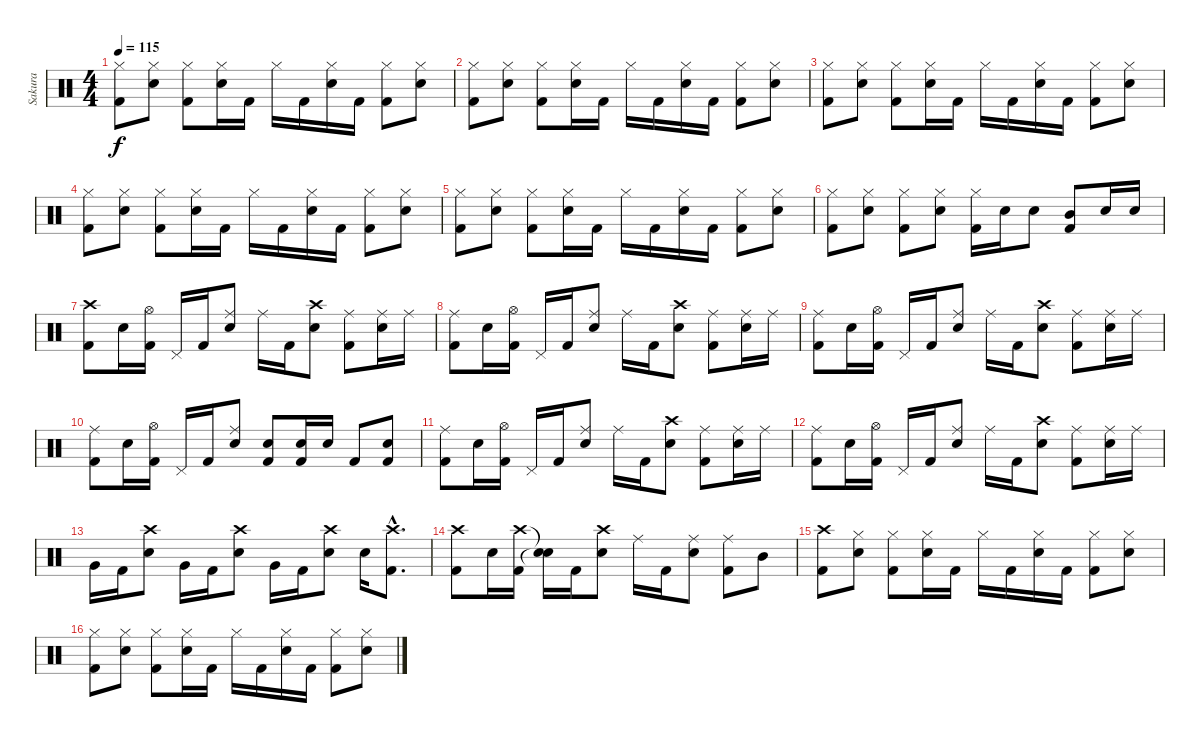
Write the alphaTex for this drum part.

\track ("Sakura" "Sakura") {instrument percussion}
\staff {score}
\articulation defaults
\ts (4 4)
\tempo 115
\clef neutral
\ks c
("Hi-Hat (closed)" "Kick (hit) 2").8{dy f} ("Hi-Hat (closed)" "Electric Snare (hit)").8 ("Hi-Hat (closed)" "Kick (hit) 2").8 ("Hi-Hat (closed)" "Electric Snare (hit)").16 "Kick (hit) 2".16 "Hi-Hat (closed)".16 "Kick (hit) 2".16 ("Hi-Hat (closed)" "Electric Snare (hit)").16 "Kick (hit) 2".16 ("Hi-Hat (closed)" "Kick (hit) 2").8 ("Hi-Hat (closed)" "Electric Snare (hit)").8 |
("Hi-Hat (closed)" "Kick (hit) 2").8 ("Hi-Hat (closed)" "Electric Snare (hit)").8 ("Hi-Hat (closed)" "Kick (hit) 2").8 ("Hi-Hat (closed)" "Electric Snare (hit)").16 "Kick (hit) 2".16 "Hi-Hat (closed)".16 "Kick (hit) 2".16 ("Hi-Hat (closed)" "Electric Snare (hit)").16 "Kick (hit) 2".16 ("Hi-Hat (closed)" "Kick (hit) 2").8 ("Hi-Hat (closed)" "Electric Snare (hit)").8 |
("Hi-Hat (closed)" "Kick (hit) 2").8 ("Hi-Hat (closed)" "Electric Snare (hit)").8 ("Hi-Hat (closed)" "Kick (hit) 2").8 ("Hi-Hat (closed)" "Electric Snare (hit)").16 "Kick (hit) 2".16 "Hi-Hat (closed)".16 "Kick (hit) 2".16 ("Hi-Hat (closed)" "Electric Snare (hit)").16 "Kick (hit) 2".16 ("Hi-Hat (closed)" "Kick (hit) 2").8 ("Hi-Hat (closed)" "Electric Snare (hit)").8 |
("Hi-Hat (closed)" "Kick (hit) 2").8 ("Hi-Hat (closed)" "Electric Snare (hit)").8 ("Hi-Hat (closed)" "Kick (hit) 2").8 ("Hi-Hat (closed)" "Electric Snare (hit)").16 "Kick (hit) 2".16 "Hi-Hat (closed)".16 "Kick (hit) 2".16 ("Hi-Hat (closed)" "Electric Snare (hit)").16 "Kick (hit) 2".16 ("Hi-Hat (closed)" "Kick (hit) 2").8 ("Hi-Hat (closed)" "Electric Snare (hit)").8 |
("Hi-Hat (closed)" "Kick (hit) 2").8 ("Hi-Hat (closed)" "Electric Snare (hit)").8 ("Hi-Hat (closed)" "Kick (hit) 2").8 ("Hi-Hat (closed)" "Electric Snare (hit)").16 "Kick (hit) 2".16 "Hi-Hat (closed)".16 "Kick (hit) 2".16 ("Hi-Hat (closed)" "Electric Snare (hit)").16 "Kick (hit) 2".16 ("Hi-Hat (closed)" "Kick (hit) 2").8 ("Hi-Hat (closed)" "Electric Snare (hit)").8 |
("Hi-Hat (closed)" "Kick (hit) 2").8 ("Hi-Hat (closed)" "Electric Snare (hit)").8 ("Hi-Hat (closed)" "Kick (hit) 2").8 ("Hi-Hat (closed)" "Electric Snare (hit)").8 ("Hi-Hat (closed)" "Kick (hit) 2").16 "Electric Snare (hit)".16 "Electric Snare (hit)".8 ("Mid Tom (hit)" "Kick (hit) 2").8 "Electric Snare (hit)".16 "Electric Snare (hit)".16 |
("Crash high (hit)" "Kick (hit) 2").8 "Electric Snare (hit)".16 ("Hi-Hat (open)" "Kick (hit) 2").16 "Pedal Hi-Hat (hit)".16 "Kick (hit) 2".16 ("Ride (middle)" "Electric Snare (hit)").8 "Ride (middle)".16 "Kick (hit) 2".16 ("Crash high (hit)" "Electric Snare (hit)").8 ("Ride (middle)" "Kick (hit) 2").8 ("Ride (middle)" "Electric Snare (hit)").16 "Ride (middle)".16 |
("Ride (middle)" "Kick (hit) 2").8 "Electric Snare (hit)".16 ("Hi-Hat (open)" "Kick (hit) 2").16 "Pedal Hi-Hat (hit)".16 "Kick (hit) 2".16 ("Ride (middle)" "Electric Snare (hit)").8 "Ride (middle)".16 "Kick (hit) 2".16 ("Crash high (hit)" "Electric Snare (hit)").8 ("Ride (middle)" "Kick (hit) 2").8 ("Ride (middle)" "Electric Snare (hit)").16 "Ride (middle)".16 |
("Ride (middle)" "Kick (hit) 2").8 "Electric Snare (hit)".16 ("Hi-Hat (open)" "Kick (hit) 2").16 "Pedal Hi-Hat (hit)".16 "Kick (hit) 2".16 ("Ride (middle)" "Electric Snare (hit)").8 "Ride (middle)".16 "Kick (hit) 2".16 ("Crash high (hit)" "Electric Snare (hit)").8 ("Ride (middle)" "Kick (hit) 2").8 ("Ride (middle)" "Electric Snare (hit)").16 "Ride (middle)".16 |
("Ride (middle)" "Kick (hit) 2").8 "Electric Snare (hit)".16 ("Hi-Hat (open)" "Kick (hit) 2").16 "Pedal Hi-Hat (hit)".16 "Kick (hit) 2".16 ("Ride (middle)" "Electric Snare (hit)").8 ("Electric Snare (hit)" "Kick (hit) 2").8 ("Electric Snare (hit)" "Kick (hit) 2").16 "Electric Snare (hit)".16 "Kick (hit) 2".8 ("Electric Snare (hit)" "Kick (hit) 2").8 |
("Ride (middle)" "Kick (hit) 2").8 "Electric Snare (hit)".16 ("Hi-Hat (open)" "Kick (hit) 2").16 "Pedal Hi-Hat (hit)".16 "Kick (hit) 2".16 ("Ride (middle)" "Electric Snare (hit)").8 "Ride (middle)".16 "Kick (hit) 2".16 ("Crash high (hit)" "Electric Snare (hit)").8 ("Ride (middle)" "Kick (hit) 2").8 ("Ride (middle)" "Electric Snare (hit)").16 "Ride (middle)".16 |
("Ride (middle)" "Kick (hit) 2").8 "Electric Snare (hit)".16 ("Hi-Hat (open)" "Kick (hit) 2").16 "Pedal Hi-Hat (hit)".16 "Kick (hit) 2".16 ("Ride (middle)" "Electric Snare (hit)").8 "Ride (middle)".16 "Kick (hit) 2".16 ("Crash high (hit)" "Electric Snare (hit)").8 ("Ride (middle)" "Kick (hit) 2").8 ("Ride (middle)" "Electric Snare (hit)").16 "Ride (middle)".16 |
"Very Low Tom (hit)".16 "Kick (hit) 2".16 ("Crash high (hit)" "Electric Snare (hit)").8 "Very Low Tom (hit)".16 "Kick (hit) 2".16 ("Crash high (hit)" "Electric Snare (hit)").8 "Very Low Tom (hit)".16 "Kick (hit) 2".16 ("Crash high (hit)" "Electric Snare (hit)").8 "Electric Snare (hit)".16 ("Crash high (hit)"{hac} "Kick (hit) 2"{hac}).8{d} |
("Crash high (hit)" "Kick (hit) 2").8 "Electric Snare (hit)".16 ("Crash high (hit)" "Kick (hit) 2").16 ("Snare (hit)"{t} "Snare (hit)"{t}).16 "Kick (hit) 2".16 ("Crash high (hit)" "Electric Snare (hit)").8 "Ride (middle)".16 "Kick (hit) 2".16 ("Ride (middle)" "Electric Snare (hit)").8 ("Ride (middle)" "Kick (hit) 2").8 "Mid Tom (hit)".8 |
("Crash high (hit)" "Kick (hit) 2").8 ("Hi-Hat (closed)" "Electric Snare (hit)").8 ("Hi-Hat (closed)" "Kick (hit) 2").8 ("Hi-Hat (closed)" "Electric Snare (hit)").16 "Kick (hit) 2".16 "Hi-Hat (closed)".16 "Kick (hit) 2".16 ("Hi-Hat (closed)" "Electric Snare (hit)").16 "Kick (hit) 2".16 ("Hi-Hat (closed)" "Kick (hit) 2").8 ("Hi-Hat (closed)" "Electric Snare (hit)").8 |
("Hi-Hat (closed)" "Kick (hit) 2").8 ("Hi-Hat (closed)" "Electric Snare (hit)").8 ("Hi-Hat (closed)" "Kick (hit) 2").8 ("Hi-Hat (closed)" "Electric Snare (hit)").16 "Kick (hit) 2".16 "Hi-Hat (closed)".16 "Kick (hit) 2".16 ("Hi-Hat (closed)" "Electric Snare (hit)").16 "Kick (hit) 2".16 ("Hi-Hat (closed)" "Kick (hit) 2").8 ("Hi-Hat (closed)" "Electric Snare (hit)").8
